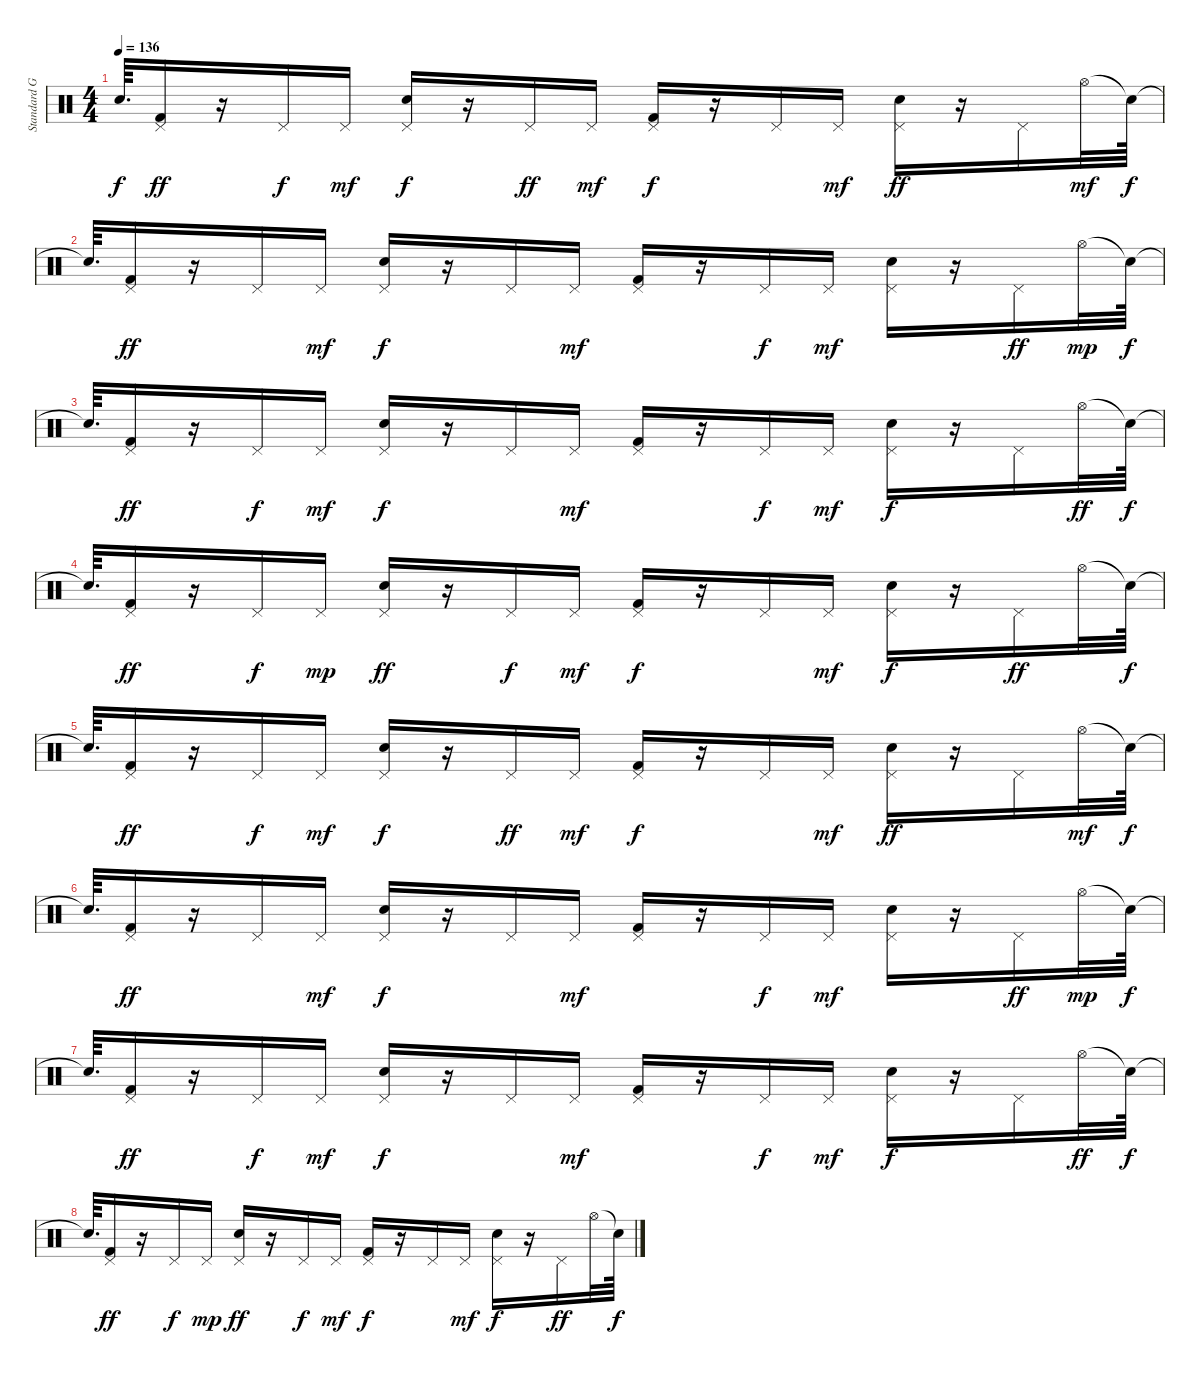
\track ("Standard GM Drum Kit" "Standard G") {instrument percussion}
\staff {score}
\articulation defaults
\ts (4 4)
\tempo 136
\clef neutral
\ks c "Snare (hit)"{t}.64{d dy f}
("Pedal Hi-Hat (hit)" "Kick (hit) 2").16{dy ff} r.16 "Pedal Hi-Hat (hit)".16{dy f} "Pedal Hi-Hat (hit)".16{dy mf} ("Pedal Hi-Hat (hit)" "Electric Snare (hit)").16{dy f} r.16 "Pedal Hi-Hat (hit)".16{dy ff} "Pedal Hi-Hat (hit)".16{dy mf} ("Kick (hit) 2" "Pedal Hi-Hat (hit)").16{dy f} r.16 "Pedal Hi-Hat (hit)".16 "Pedal Hi-Hat (hit)".16{dy mf} ("Electric Snare (hit)" "Pedal Hi-Hat (hit)").16{dy ff} r.16 "Pedal Hi-Hat (hit)".16 "Hi-Hat (open)".32{dy mf} "Snare (hit)"{t}.64{dy f} |
"Snare (hit)"{t}.64{d} ("Pedal Hi-Hat (hit)" "Kick (hit) 2").16{dy ff} r.16 "Pedal Hi-Hat (hit)".16 "Pedal Hi-Hat (hit)".16{dy mf} ("Pedal Hi-Hat (hit)" "Electric Snare (hit)").16{dy f} r.16 "Pedal Hi-Hat (hit)".16 "Pedal Hi-Hat (hit)".16{dy mf} ("Kick (hit) 2" "Pedal Hi-Hat (hit)").16 r.16 "Pedal Hi-Hat (hit)".16{dy f} "Pedal Hi-Hat (hit)".16{dy mf} ("Electric Snare (hit)" "Pedal Hi-Hat (hit)").16 r.16 "Pedal Hi-Hat (hit)".16{dy ff} "Hi-Hat (open)".32{dy mp} "Snare (hit)"{t}.64{dy f} |
"Snare (hit)"{t}.64{d} ("Pedal Hi-Hat (hit)" "Kick (hit) 2").16{dy ff} r.16 "Pedal Hi-Hat (hit)".16{dy f} "Pedal Hi-Hat (hit)".16{dy mf} ("Pedal Hi-Hat (hit)" "Electric Snare (hit)").16{dy f} r.16 "Pedal Hi-Hat (hit)".16 "Pedal Hi-Hat (hit)".16{dy mf} ("Pedal Hi-Hat (hit)" "Kick (hit) 2").16 r.16 "Pedal Hi-Hat (hit)".16{dy f} "Pedal Hi-Hat (hit)".16{dy mf} ("Pedal Hi-Hat (hit)" "Electric Snare (hit)").16{dy f} r.16 "Pedal Hi-Hat (hit)".16 "Hi-Hat (open)".32{dy ff} "Snare (hit)"{t}.64{dy f} |
"Snare (hit)"{t}.64{d} ("Pedal Hi-Hat (hit)" "Kick (hit) 2").16{dy ff} r.16 "Pedal Hi-Hat (hit)".16{dy f} "Pedal Hi-Hat (hit)".16{dy mp} ("Pedal Hi-Hat (hit)" "Electric Snare (hit)").16{dy ff} r.16 "Pedal Hi-Hat (hit)".16{dy f} "Pedal Hi-Hat (hit)".16{dy mf} ("Kick (hit) 2" "Pedal Hi-Hat (hit)").16{dy f} r.16 "Pedal Hi-Hat (hit)".16 "Pedal Hi-Hat (hit)".16{dy mf} ("Electric Snare (hit)" "Pedal Hi-Hat (hit)").16{dy f} r.16 "Pedal Hi-Hat (hit)".16{dy ff} "Hi-Hat (open)".32 "Snare (hit)"{t}.64{dy f} |
"Snare (hit)"{t}.64{d} ("Pedal Hi-Hat (hit)" "Kick (hit) 2").16{dy ff} r.16 "Pedal Hi-Hat (hit)".16{dy f} "Pedal Hi-Hat (hit)".16{dy mf} ("Pedal Hi-Hat (hit)" "Electric Snare (hit)").16{dy f} r.16 "Pedal Hi-Hat (hit)".16{dy ff} "Pedal Hi-Hat (hit)".16{dy mf} ("Kick (hit) 2" "Pedal Hi-Hat (hit)").16{dy f} r.16 "Pedal Hi-Hat (hit)".16 "Pedal Hi-Hat (hit)".16{dy mf} ("Electric Snare (hit)" "Pedal Hi-Hat (hit)").16{dy ff} r.16 "Pedal Hi-Hat (hit)".16 "Hi-Hat (open)".32{dy mf} "Snare (hit)"{t}.64{dy f} |
"Snare (hit)"{t}.64{d} ("Pedal Hi-Hat (hit)" "Kick (hit) 2").16{dy ff} r.16 "Pedal Hi-Hat (hit)".16 "Pedal Hi-Hat (hit)".16{dy mf} ("Pedal Hi-Hat (hit)" "Electric Snare (hit)").16{dy f} r.16 "Pedal Hi-Hat (hit)".16 "Pedal Hi-Hat (hit)".16{dy mf} ("Kick (hit) 2" "Pedal Hi-Hat (hit)").16 r.16 "Pedal Hi-Hat (hit)".16{dy f} "Pedal Hi-Hat (hit)".16{dy mf} ("Electric Snare (hit)" "Pedal Hi-Hat (hit)").16 r.16 "Pedal Hi-Hat (hit)".16{dy ff} "Hi-Hat (open)".32{dy mp} "Snare (hit)"{t}.64{dy f} |
"Snare (hit)"{t}.64{d} ("Pedal Hi-Hat (hit)" "Kick (hit) 2").16{dy ff} r.16 "Pedal Hi-Hat (hit)".16{dy f} "Pedal Hi-Hat (hit)".16{dy mf} ("Pedal Hi-Hat (hit)" "Electric Snare (hit)").16{dy f} r.16 "Pedal Hi-Hat (hit)".16 "Pedal Hi-Hat (hit)".16{dy mf} ("Pedal Hi-Hat (hit)" "Kick (hit) 2").16 r.16 "Pedal Hi-Hat (hit)".16{dy f} "Pedal Hi-Hat (hit)".16{dy mf} ("Pedal Hi-Hat (hit)" "Electric Snare (hit)").16{dy f} r.16 "Pedal Hi-Hat (hit)".16 "Hi-Hat (open)".32{dy ff} "Snare (hit)"{t}.64{dy f} |
"Snare (hit)"{t}.64{d} ("Pedal Hi-Hat (hit)" "Kick (hit) 2").16{dy ff} r.16 "Pedal Hi-Hat (hit)".16{dy f} "Pedal Hi-Hat (hit)".16{dy mp} ("Pedal Hi-Hat (hit)" "Electric Snare (hit)").16{dy ff} r.16 "Pedal Hi-Hat (hit)".16{dy f} "Pedal Hi-Hat (hit)".16{dy mf} ("Kick (hit) 2" "Pedal Hi-Hat (hit)").16{dy f} r.16 "Pedal Hi-Hat (hit)".16 "Pedal Hi-Hat (hit)".16{dy mf} ("Electric Snare (hit)" "Pedal Hi-Hat (hit)").16{dy f} r.16 "Pedal Hi-Hat (hit)".16{dy ff} "Hi-Hat (open)".32 "Snare (hit)"{t}.64{dy f}
